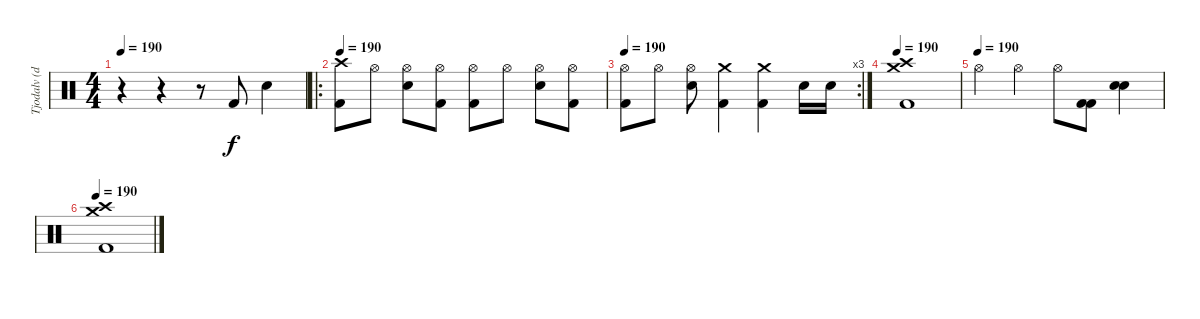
\track ("Tjodalv (drums)" "Tjodalv (d") {instrument percussion}
\staff {score}
\articulation defaults
\ts (4 4)
\tempo 190
\clef neutral
\ks c
r.4{dy f} r.4 r.8 "Kick (hit) 2".8 "Snare (hit) 2".4 |
\ro
\tempo 190
("Crash high (hit)" "Kick (hit) 2").8 "Hi-Hat (open)".8 ("Hi-Hat (open)" "Snare (hit) 2").8 ("Hi-Hat (open)" "Kick (hit) 2").8 ("Hi-Hat (open)" "Kick (hit) 2").8 "Hi-Hat (open)".8 ("Hi-Hat (open)" "Snare (hit) 2").8 ("Hi-Hat (open)" "Kick (hit) 2").8 |
\rc 3
\tempo 190
("Hi-Hat (open)" "Kick (hit) 2").8 "Hi-Hat (open)".8 ("Hi-Hat (open)" "Snare (hit) 2").8 ("Crash medium (hit)" "Kick (hit) 2").4 ("Crash medium (hit)" "Kick (hit) 2").4 "Snare (hit) 2".16 "Snare (hit) 2".16 |
\tempo 190
("Crash high (hit)" "Crash medium (hit)" "Kick (hit) 2").1 |
\tempo (190)
"Hi-Hat (open)".4 "Hi-Hat (open)".4 "Hi-Hat (open)".8 ("Kick (hit) 2" "Kick (hit) 2").8 ("Snare (hit) 2" "Snare (hit) 2").4 |
\tempo 190
("Crash high (hit)" "Crash medium (hit)" "Kick (hit) 2").1
